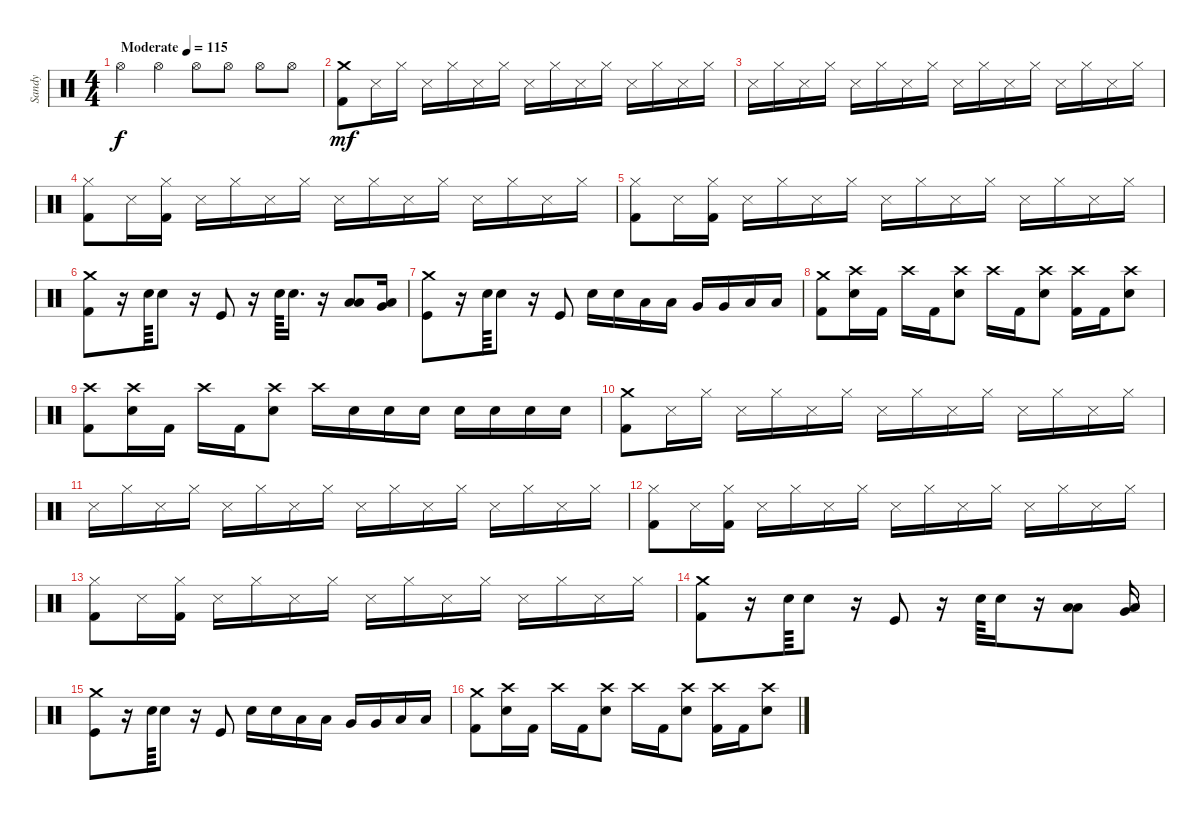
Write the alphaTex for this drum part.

\track ("Sandy" "Sandy") {instrument percussion}
\staff {score}
\articulation defaults
\ts (4 4)
\tempo (115 "Moderate")
\clef neutral
\ks c "Hi-Hat (open)".4{dy f} "Hi-Hat (open)".4 "Hi-Hat (open)".8 "Hi-Hat (open)".8 "Hi-Hat (open)".8 "Hi-Hat (open)".8
|
("Crash medium (hit)" "Kick (hit) 2").8{dy mf} "Snare (side stick) 3".16 "Hi-Hat (closed)".16 "Snare (side stick) 3".16 "Hi-Hat (closed)".16 "Snare (side stick) 3".16 "Hi-Hat (closed)".16 "Snare (side stick) 3".16 "Hi-Hat (closed)".16 "Snare (side stick) 3".16 "Hi-Hat (closed)".16 "Snare (side stick) 3".16 "Hi-Hat (closed)".16 "Snare (side stick) 3".16 "Hi-Hat (closed)".16 |
"Snare (side stick) 3".16 "Hi-Hat (closed)".16 "Snare (side stick) 3".16 "Hi-Hat (closed)".16 "Snare (side stick) 3".16 "Hi-Hat (closed)".16 "Snare (side stick) 3".16 "Hi-Hat (closed)".16 "Snare (side stick) 3".16 "Hi-Hat (closed)".16 "Snare (side stick) 3".16 "Hi-Hat (closed)".16 "Snare (side stick) 3".16 "Hi-Hat (closed)".16 "Snare (side stick) 3".16 "Hi-Hat (closed)".16 |
("Hi-Hat (closed)" "Kick (hit) 2").8 "Snare (side stick) 3".16 ("Hi-Hat (closed)" "Kick (hit) 2").16 "Snare (side stick) 3".16 "Hi-Hat (closed)".16 "Snare (side stick) 3".16 "Hi-Hat (closed)".16 "Snare (side stick) 3".16 "Hi-Hat (closed)".16 "Snare (side stick) 3".16 "Hi-Hat (closed)".16 "Snare (side stick) 3".16 "Hi-Hat (closed)".16 "Snare (side stick) 3".16 "Hi-Hat (closed)".16 |
("Hi-Hat (closed)" "Kick (hit) 2").8 "Snare (side stick) 3".16 ("Hi-Hat (closed)" "Kick (hit) 2").16 "Snare (side stick) 3".16 "Hi-Hat (closed)".16 "Snare (side stick) 3".16 "Hi-Hat (closed)".16 "Snare (side stick) 3".16 "Hi-Hat (closed)".16 "Snare (side stick) 3".16 "Hi-Hat (closed)".16 "Snare (side stick) 3".16 "Hi-Hat (closed)".16 "Snare (side stick) 3".16 "Hi-Hat (closed)".16 |
("Crash medium (hit)" "Kick (hit) 2").8 r.16 "Electric Snare (hit)".64 "Electric Snare (hit)".8 r.16 "Kick (hit)".8 r.16 "Electric Snare (hit)".64 "Electric Snare (hit)".16{d} r.16 ("Low Tom (hit)" "Low Floor Tom (hit)").8 ("Very Low Tom (hit)" "Low Floor Tom (hit)").16 |
("Crash medium (hit)" "Kick (hit)").8 r.16 "Electric Snare (hit)".64 "Electric Snare (hit)".8 r.16 "Kick (hit)".8 "Electric Snare (hit)".16 "Electric Snare (hit)".16 "Low Tom (hit)".16 "Low Tom (hit)".16 "Very Low Tom (hit)".16 "Very Low Tom (hit)".16 "Low Floor Tom (hit)".16 "Low Floor Tom (hit)".16 |
("Crash medium (hit)" "Kick (hit) 2").8 ("Crash high (hit)" "Snare (hit) 2").16 "Kick (hit) 2".16 "Crash high (hit)".16 "Kick (hit) 2".16 ("Crash high (hit)" "Snare (hit) 2").8 "Crash high (hit)".16 "Kick (hit) 2".16 ("Crash high (hit)" "Snare (hit) 2").8 ("Crash high (hit)" "Kick (hit) 2").16 "Kick (hit) 2".16 ("Crash high (hit)" "Snare (hit) 2").8 |
("Crash high (hit)" "Kick (hit) 2").8 ("Crash high (hit)" "Snare (hit) 2").16 "Kick (hit) 2".16 "Crash high (hit)".16 "Kick (hit) 2".16 ("Crash high (hit)" "Snare (hit) 2").8 "Crash high (hit)".16 "Snare (hit) 2".16 "Snare (hit) 2".16 "Snare (hit) 2".16 "Snare (hit) 2".16 "Snare (hit) 2".16 "Snare (hit) 2".16 "Snare (hit) 2".16 |
("Crash medium (hit)" "Kick (hit) 2").8 "Snare (side stick) 3".16 "Hi-Hat (closed)".16 "Snare (side stick) 3".16 "Hi-Hat (closed)".16 "Snare (side stick) 3".16 "Hi-Hat (closed)".16 "Snare (side stick) 3".16 "Hi-Hat (closed)".16 "Snare (side stick) 3".16 "Hi-Hat (closed)".16 "Snare (side stick) 3".16 "Hi-Hat (closed)".16 "Snare (side stick) 3".16 "Hi-Hat (closed)".16 |
"Snare (side stick) 3".16 "Hi-Hat (closed)".16 "Snare (side stick) 3".16 "Hi-Hat (closed)".16 "Snare (side stick) 3".16 "Hi-Hat (closed)".16 "Snare (side stick) 3".16 "Hi-Hat (closed)".16 "Snare (side stick) 3".16 "Hi-Hat (closed)".16 "Snare (side stick) 3".16 "Hi-Hat (closed)".16 "Snare (side stick) 3".16 "Hi-Hat (closed)".16 "Snare (side stick) 3".16 "Hi-Hat (closed)".16 |
("Hi-Hat (closed)" "Kick (hit) 2").8 "Snare (side stick) 3".16 ("Hi-Hat (closed)" "Kick (hit) 2").16 "Snare (side stick) 3".16 "Hi-Hat (closed)".16 "Snare (side stick) 3".16 "Hi-Hat (closed)".16 "Snare (side stick) 3".16 "Hi-Hat (closed)".16 "Snare (side stick) 3".16 "Hi-Hat (closed)".16 "Snare (side stick) 3".16 "Hi-Hat (closed)".16 "Snare (side stick) 3".16 "Hi-Hat (closed)".16 |
("Hi-Hat (closed)" "Kick (hit) 2").8 "Snare (side stick) 3".16 ("Hi-Hat (closed)" "Kick (hit) 2").16 "Snare (side stick) 3".16 "Hi-Hat (closed)".16 "Snare (side stick) 3".16 "Hi-Hat (closed)".16 "Snare (side stick) 3".16 "Hi-Hat (closed)".16 "Snare (side stick) 3".16 "Hi-Hat (closed)".16 "Snare (side stick) 3".16 "Hi-Hat (closed)".16 "Snare (side stick) 3".16 "Hi-Hat (closed)".16 |
("Crash medium (hit)" "Kick (hit) 2").8 r.16 "Electric Snare (hit)".64 "Electric Snare (hit)".8 r.16 "Kick (hit)".8 r.16 "Electric Snare (hit)".64 "Electric Snare (hit)".16 r.16 ("Low Tom (hit)" "Low Floor Tom (hit)").8 ("Very Low Tom (hit)" "Low Floor Tom (hit)").16 |
("Crash medium (hit)" "Kick (hit)").8 r.16 "Electric Snare (hit)".64 "Electric Snare (hit)".8 r.16 "Kick (hit)".8 "Electric Snare (hit)".16 "Electric Snare (hit)".16 "Low Tom (hit)".16 "Low Tom (hit)".16 "Very Low Tom (hit)".16 "Very Low Tom (hit)".16 "Low Floor Tom (hit)".16 "Low Floor Tom (hit)".16 |
("Crash medium (hit)" "Kick (hit) 2").8 ("Crash high (hit)" "Snare (hit) 2").16 "Kick (hit) 2".16 "Crash high (hit)".16 "Kick (hit) 2".16 ("Crash high (hit)" "Snare (hit) 2").8 "Crash high (hit)".16 "Kick (hit) 2".16 ("Crash high (hit)" "Snare (hit) 2").8 ("Crash high (hit)" "Kick (hit) 2").16 "Kick (hit) 2".16 ("Crash high (hit)" "Snare (hit) 2").8
